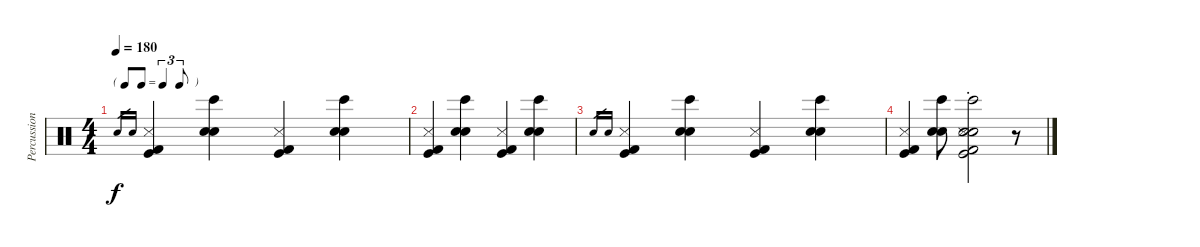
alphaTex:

\track ("Percussion" "Percussion") {instrument percussion}
\staff {score}
\articulation defaults
\ts (4 4)
\tf triplet8th
\tempo 180
\clef neutral
\ks c "Electric Snare (hit)".16{gr dy f} "Snare (hit) 2".16{gr}
("Snare (side stick) 3" "Kick (hit)" "Kick (hit) 2").4 ("Bongo High (hit)" "Electric Snare (hit)" "Snare (hit) 2").4 ("Snare (side stick) 3" "Kick (hit)" "Kick (hit) 2").4 ("Bongo High (hit)" "Electric Snare (hit)" "Snare (hit) 2").4 |
("Snare (side stick) 3" "Kick (hit)" "Kick (hit) 2").4 ("Bongo High (hit)" "Electric Snare (hit)" "Snare (hit) 2").4 ("Snare (side stick) 3" "Kick (hit)" "Kick (hit) 2").4 ("Bongo High (hit)" "Electric Snare (hit)" "Snare (hit) 2").4 |
"Electric Snare (hit)".16{gr} "Snare (hit) 2".16{gr} ("Snare (side stick) 3" "Kick (hit)" "Kick (hit) 2").4 ("Bongo High (hit)" "Electric Snare (hit)" "Snare (hit) 2").4 ("Snare (side stick) 3" "Kick (hit)" "Kick (hit) 2").4 ("Bongo High (hit)" "Electric Snare (hit)" "Snare (hit) 2").4 |
("Snare (side stick) 3" "Kick (hit)" "Kick (hit) 2").4 ("Bongo High (hit)" "Electric Snare (hit)" "Snare (hit) 2").8 ("Bongo High (hit)"{st} "Electric Snare (hit)" "Snare (hit) 2" "Snare (side stick) 3" "Kick (hit)" "Kick (hit) 2").2 r.8
